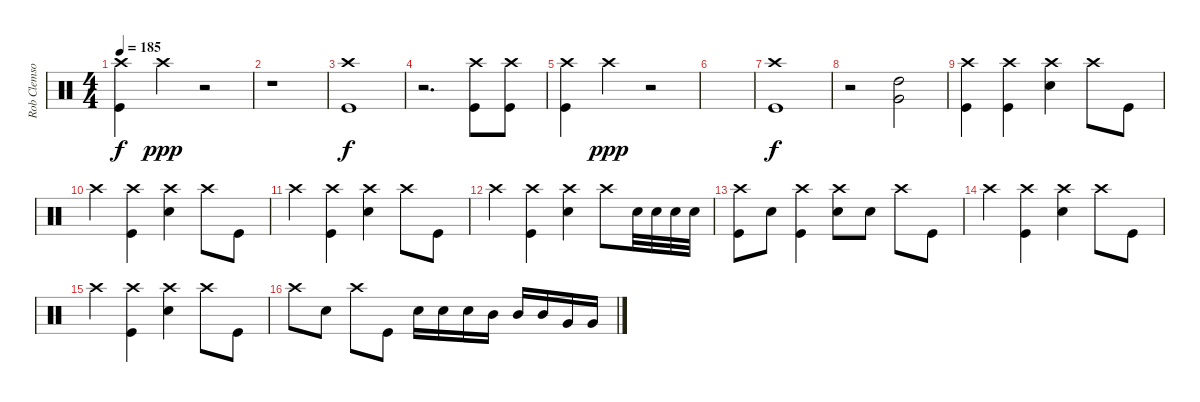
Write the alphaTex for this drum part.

\track ("Rob Clemson (Drums)" "Rob Clemso") {instrument percussion}
\staff {score}
\articulation defaults
\ts (4 4)
\tempo 185
\clef neutral
\ks c
("Kick (hit)" "Crash high (hit)").4{dy f} "Crash high (hit)".4{dy ppp} r.2 |
r.1 |
("Kick (hit)" "Crash high (hit)").1{dy f} |
r.2{d} ("Kick (hit)" "Crash high (hit)").8 ("Kick (hit)" "Crash high (hit)").8 |
("Kick (hit)" "Crash high (hit)").4 "Crash high (hit)".4{dy ppp} r.2 |
|
("Kick (hit)" "Crash high (hit)").1{dy f} |
r.2 ("Very Low Tom (hit)" "High Tom (hit)").2 |
("Crash high (hit)" "Kick (hit)").4 ("Crash high (hit)" "Kick (hit)").4 ("Crash high (hit)" "Electric Snare (hit)").4 "Crash high (hit)".8 "Kick (hit)".8 |
"Crash high (hit)".4 ("Crash high (hit)" "Kick (hit)").4 ("Crash high (hit)" "Electric Snare (hit)").4 "Crash high (hit)".8 "Kick (hit)".8 |
"Crash high (hit)".4 ("Crash high (hit)" "Kick (hit)").4 ("Crash high (hit)" "Electric Snare (hit)").4 "Crash high (hit)".8 "Kick (hit)".8 |
"Crash high (hit)".4 ("Crash high (hit)" "Kick (hit)").4 ("Crash high (hit)" "Electric Snare (hit)").4 "Crash high (hit)".8 "Electric Snare (hit)".32 "Electric Snare (hit)".32 "Electric Snare (hit)".32 "Electric Snare (hit)".32 |
("Crash high (hit)" "Kick (hit)").8 "Electric Snare (hit)".8 ("Crash high (hit)" "Kick (hit)").4 ("Crash high (hit)" "Electric Snare (hit)").8 "Electric Snare (hit)".8 "Crash high (hit)".8 "Kick (hit)".8 |
"Crash high (hit)".4 ("Crash high (hit)" "Kick (hit)").4 ("Crash high (hit)" "Electric Snare (hit)").4 "Crash high (hit)".8 "Kick (hit)".8 |
"Crash high (hit)".4 ("Crash high (hit)" "Kick (hit)").4 ("Crash high (hit)" "Electric Snare (hit)").4 "Crash high (hit)".8 "Kick (hit)".8 |
"Crash high (hit)".8 "Electric Snare (hit)".8 "Crash high (hit)".8 "Kick (hit)".8 "Electric Snare (hit)".16 "Electric Snare (hit)".16 "Electric Snare (hit)".16 "Mid Tom (hit)".16 "Mid Tom (hit)".16 "Mid Tom (hit)".16 "Very Low Tom (hit)".16 "Very Low Tom (hit)".16
